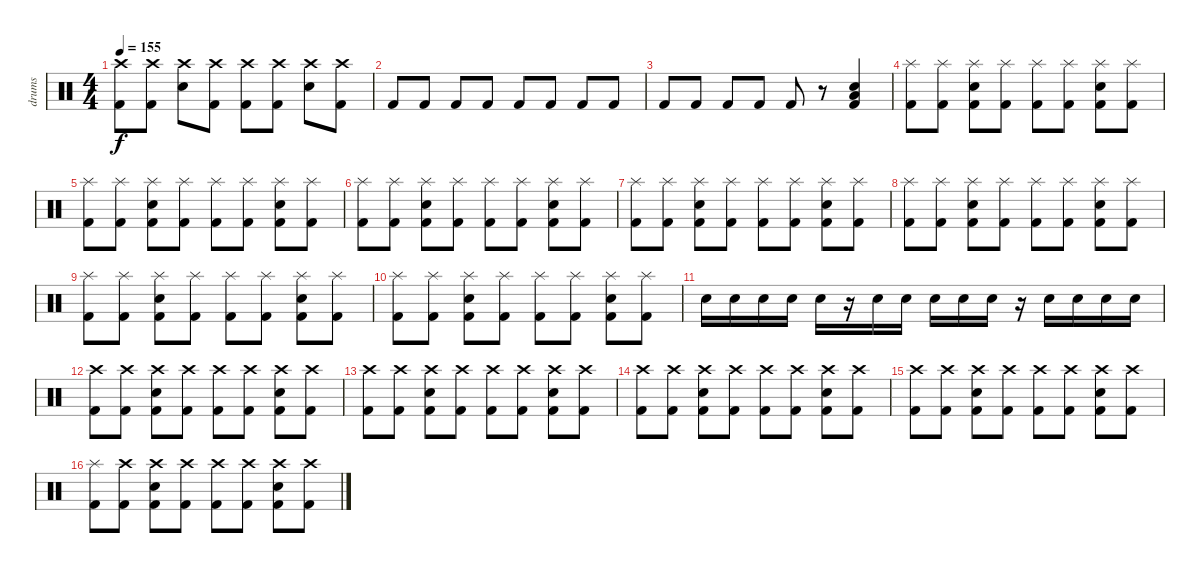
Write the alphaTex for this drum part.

\track ("drums" "drums") {instrument percussion}
\staff {score}
\articulation defaults
\ts (4 4)
\tempo 155
\clef neutral
\ks c
("Crash high (hit)" "Kick (hit) 2").8{dy f} ("Crash high (hit)" "Kick (hit) 2").8 ("Crash high (hit)" "Snare (hit) 2").8 ("Crash high (hit)" "Kick (hit) 2").8 ("Crash high (hit)" "Kick (hit) 2").8 ("Crash high (hit)" "Kick (hit) 2").8 ("Crash high (hit)" "Snare (hit) 2").8 ("Crash high (hit)" "Kick (hit) 2").8 |
"Kick (hit) 2".8 "Kick (hit) 2".8 "Kick (hit) 2".8 "Kick (hit) 2".8 "Kick (hit) 2".8 "Kick (hit) 2".8 "Kick (hit) 2".8 "Kick (hit) 2".8 |
"Kick (hit) 2".8 "Kick (hit) 2".8 "Kick (hit) 2".8 "Kick (hit) 2".8 "Kick (hit) 2".8 r.8 ("Snare (hit) 2" "Low Floor Tom (hit)" "Kick (hit) 2").4 |
("Splash (hit)" "Kick (hit) 2").8 ("Splash (hit)" "Kick (hit) 2").8 ("Splash (hit)" "Snare (hit) 2" "Kick (hit) 2").8 ("Splash (hit)" "Kick (hit) 2").8 ("Splash (hit)" "Kick (hit) 2").8 ("Splash (hit)" "Kick (hit) 2").8 ("Splash (hit)" "Snare (hit) 2" "Kick (hit) 2").8 ("Splash (hit)" "Kick (hit) 2").8 |
("Splash (hit)" "Kick (hit) 2").8 ("Splash (hit)" "Kick (hit) 2").8 ("Splash (hit)" "Snare (hit) 2" "Kick (hit) 2").8 ("Splash (hit)" "Kick (hit) 2").8 ("Splash (hit)" "Kick (hit) 2").8 ("Splash (hit)" "Kick (hit) 2").8 ("Splash (hit)" "Snare (hit) 2" "Kick (hit) 2").8 ("Splash (hit)" "Kick (hit) 2").8 |
("Splash (hit)" "Kick (hit) 2").8 ("Splash (hit)" "Kick (hit) 2").8 ("Splash (hit)" "Snare (hit) 2" "Kick (hit) 2").8 ("Splash (hit)" "Kick (hit) 2").8 ("Splash (hit)" "Kick (hit) 2").8 ("Splash (hit)" "Kick (hit) 2").8 ("Splash (hit)" "Snare (hit) 2" "Kick (hit) 2").8 ("Splash (hit)" "Kick (hit) 2").8 |
("Splash (hit)" "Kick (hit) 2").8 ("Splash (hit)" "Kick (hit) 2").8 ("Splash (hit)" "Snare (hit) 2" "Kick (hit) 2").8 ("Splash (hit)" "Kick (hit) 2").8 ("Splash (hit)" "Kick (hit) 2").8 ("Splash (hit)" "Kick (hit) 2").8 ("Splash (hit)" "Snare (hit) 2" "Kick (hit) 2").8 ("Splash (hit)" "Kick (hit) 2").8 |
("Splash (hit)" "Kick (hit) 2").8 ("Splash (hit)" "Kick (hit) 2").8 ("Splash (hit)" "Snare (hit) 2" "Kick (hit) 2").8 ("Splash (hit)" "Kick (hit) 2").8 ("Splash (hit)" "Kick (hit) 2").8 ("Splash (hit)" "Kick (hit) 2").8 ("Splash (hit)" "Snare (hit) 2" "Kick (hit) 2").8 ("Splash (hit)" "Kick (hit) 2").8 |
("Splash (hit)" "Kick (hit) 2").8 ("Splash (hit)" "Kick (hit) 2").8 ("Splash (hit)" "Snare (hit) 2" "Kick (hit) 2").8 ("Splash (hit)" "Kick (hit) 2").8 ("Splash (hit)" "Kick (hit) 2").8 ("Splash (hit)" "Kick (hit) 2").8 ("Splash (hit)" "Snare (hit) 2" "Kick (hit) 2").8 ("Splash (hit)" "Kick (hit) 2").8 |
("Splash (hit)" "Kick (hit) 2").8 ("Splash (hit)" "Kick (hit) 2").8 ("Splash (hit)" "Snare (hit) 2" "Kick (hit) 2").8 ("Splash (hit)" "Kick (hit) 2").8 ("Splash (hit)" "Kick (hit) 2").8 ("Splash (hit)" "Kick (hit) 2").8 ("Splash (hit)" "Snare (hit) 2" "Kick (hit) 2").8 ("Splash (hit)" "Kick (hit) 2").8 |
"Snare (hit) 2".16 "Snare (hit) 2".16 "Snare (hit) 2".16 "Snare (hit) 2".16 "Snare (hit) 2".16 r.16 "Snare (hit) 2".16 "Snare (hit) 2".16 "Snare (hit) 2".16 "Snare (hit) 2".16 "Snare (hit) 2".16 r.16 "Snare (hit) 2".16 "Snare (hit) 2".16 "Snare (hit) 2".16 "Snare (hit) 2".16 |
("Crash high (hit)" "Kick (hit) 2").8 ("Crash high (hit)" "Kick (hit) 2").8 ("Crash high (hit)" "Snare (hit) 2" "Kick (hit) 2").8 ("Crash high (hit)" "Kick (hit) 2").8 ("Crash high (hit)" "Kick (hit) 2").8 ("Crash high (hit)" "Kick (hit) 2").8 ("Crash high (hit)" "Snare (hit) 2" "Kick (hit) 2").8 ("Crash high (hit)" "Kick (hit) 2").8 |
("Crash high (hit)" "Kick (hit) 2").8 ("Crash high (hit)" "Kick (hit) 2").8 ("Crash high (hit)" "Snare (hit) 2" "Kick (hit) 2").8 ("Crash high (hit)" "Kick (hit) 2").8 ("Crash high (hit)" "Kick (hit) 2").8 ("Crash high (hit)" "Kick (hit) 2").8 ("Crash high (hit)" "Snare (hit) 2" "Kick (hit) 2").8 ("Crash high (hit)" "Kick (hit) 2").8 |
("Crash high (hit)" "Kick (hit) 2").8 ("Crash high (hit)" "Kick (hit) 2").8 ("Crash high (hit)" "Snare (hit) 2" "Kick (hit) 2").8 ("Crash high (hit)" "Kick (hit) 2").8 ("Crash high (hit)" "Kick (hit) 2").8 ("Crash high (hit)" "Kick (hit) 2").8 ("Crash high (hit)" "Snare (hit) 2" "Kick (hit) 2").8 ("Crash high (hit)" "Kick (hit) 2").8 |
("Crash high (hit)" "Kick (hit) 2").8 ("Crash high (hit)" "Kick (hit) 2").8 ("Crash high (hit)" "Snare (hit) 2" "Kick (hit) 2").8 ("Crash high (hit)" "Kick (hit) 2").8 ("Crash high (hit)" "Kick (hit) 2").8 ("Crash high (hit)" "Kick (hit) 2").8 ("Crash high (hit)" "Snare (hit) 2" "Kick (hit) 2").8 ("Crash high (hit)" "Kick (hit) 2").8 |
("Splash (hit)" "Kick (hit) 2").8 ("Crash high (hit)" "Kick (hit) 2").8 ("Crash high (hit)" "Snare (hit) 2" "Kick (hit) 2").8 ("Crash high (hit)" "Kick (hit) 2").8 ("Crash high (hit)" "Kick (hit) 2").8 ("Crash high (hit)" "Kick (hit) 2").8 ("Crash high (hit)" "Snare (hit) 2" "Kick (hit) 2").8 ("Crash high (hit)" "Kick (hit) 2").8
